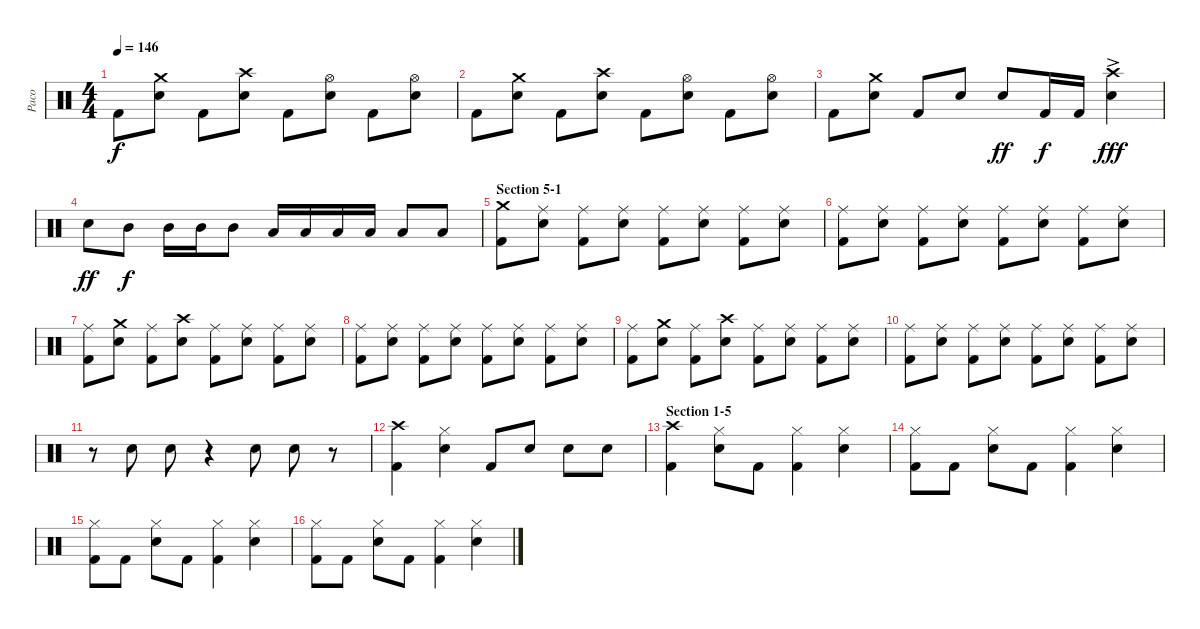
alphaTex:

\track ("Paco" "Paco") {instrument percussion}
\staff {score}
\articulation defaults
\ts (4 4)
\tempo 146
\clef neutral
\ks c "Kick (hit) 2".8{dy f}
("Crash medium (hit)" "Snare (hit) 2").8 "Kick (hit) 2".8 ("Crash high (hit)" "Snare (hit) 2").8 "Kick (hit) 2".8 ("Hi-Hat (open)" "Snare (hit) 2").8 "Kick (hit) 2".8 ("Hi-Hat (open)" "Snare (hit) 2").8 |
"Kick (hit) 2".8 ("Crash medium (hit)" "Snare (hit) 2").8 "Kick (hit) 2".8 ("Crash high (hit)" "Snare (hit) 2").8 "Kick (hit) 2".8 ("Hi-Hat (open)" "Snare (hit) 2").8 "Kick (hit) 2".8 ("Hi-Hat (open)" "Snare (hit) 2").8 |
"Kick (hit) 2".8 ("Crash medium (hit)" "Snare (hit) 2").8 "Kick (hit) 2".8 "Snare (hit) 2".8 "Snare (hit) 2".8{dy ff} "Kick (hit) 2".16{dy f} "Kick (hit) 2".16 ("Crash high (hit)" "Snare (hit) 2"{ac}).4{dy fff} |
"Snare (hit) 2".8{dy ff} "Mid Tom (hit)".8{dy f} "Mid Tom (hit)".16 "Mid Tom (hit)".16 "Mid Tom (hit)".8 "Low Tom (hit)".16 "Low Tom (hit)".16 "Low Tom (hit)".16 "Low Tom (hit)".16 "Low Tom (hit)".8 "Low Tom (hit)".8 |
\section ("" "Section 5-1")
("Crash medium (hit)" "Kick (hit) 2").8 ("Ride (middle)" "Snare (hit) 2").8 ("Ride (middle)" "Kick (hit) 2").8 ("Ride (middle)" "Snare (hit) 2").8 ("Ride (middle)" "Kick (hit) 2").8 ("Ride (middle)" "Snare (hit) 2").8 ("Ride (middle)" "Kick (hit) 2").8 ("Ride (middle)" "Snare (hit) 2").8 |
("Ride (middle)" "Kick (hit) 2").8 ("Ride (middle)" "Snare (hit) 2").8 ("Ride (middle)" "Kick (hit) 2").8 ("Ride (middle)" "Snare (hit) 2").8 ("Ride (middle)" "Kick (hit) 2").8 ("Ride (middle)" "Snare (hit) 2").8 ("Ride (middle)" "Kick (hit) 2").8 ("Ride (middle)" "Snare (hit) 2").8 |
("Ride (middle)" "Kick (hit) 2").8 ("Crash medium (hit)" "Snare (hit) 2").8 ("Ride (middle)" "Kick (hit) 2").8 ("Crash high (hit)" "Snare (hit) 2").8 ("Ride (middle)" "Kick (hit) 2").8 ("Ride (middle)" "Snare (hit) 2").8 ("Ride (middle)" "Kick (hit) 2").8 ("Ride (middle)" "Snare (hit) 2").8 |
("Ride (middle)" "Kick (hit) 2").8 ("Ride (middle)" "Snare (hit) 2").8 ("Ride (middle)" "Kick (hit) 2").8 ("Ride (middle)" "Snare (hit) 2").8 ("Ride (middle)" "Kick (hit) 2").8 ("Ride (middle)" "Snare (hit) 2").8 ("Ride (middle)" "Kick (hit) 2").8 ("Ride (middle)" "Snare (hit) 2").8 |
("Ride (middle)" "Kick (hit) 2").8 ("Crash medium (hit)" "Snare (hit) 2").8 ("Ride (middle)" "Kick (hit) 2").8 ("Crash high (hit)" "Snare (hit) 2").8 ("Ride (middle)" "Kick (hit) 2").8 ("Ride (middle)" "Snare (hit) 2").8 ("Ride (middle)" "Kick (hit) 2").8 ("Ride (middle)" "Snare (hit) 2").8 |
("Ride (middle)" "Kick (hit) 2").8 ("Ride (middle)" "Snare (hit) 2").8 ("Ride (middle)" "Kick (hit) 2").8 ("Ride (middle)" "Snare (hit) 2").8 ("Ride (middle)" "Kick (hit) 2").8 ("Ride (middle)" "Snare (hit) 2").8 ("Ride (middle)" "Kick (hit) 2").8 ("Ride (middle)" "Snare (hit) 2").8 |
r.8 "Snare (hit) 2".8 "Snare (hit) 2".8 r.4 "Snare (hit) 2".8 "Snare (hit) 2".8 r.8 |
("Crash high (hit)" "Kick (hit) 2").4 ("Hi-Hat (closed)" "Snare (hit) 2").4 "Kick (hit) 2".8 "Snare (hit) 2".8 "Snare (hit) 2".8 "Snare (hit) 2".8 |
\section ("" "Section 1-5")
("Crash high (hit)" "Kick (hit) 2").4 ("Hi-Hat (closed)" "Snare (hit) 2").8 "Kick (hit) 2".8 ("Hi-Hat (closed)" "Kick (hit) 2").4 ("Hi-Hat (closed)" "Snare (hit) 2").4 |
("Hi-Hat (closed)" "Kick (hit) 2").8 "Kick (hit) 2".8 ("Hi-Hat (closed)" "Snare (hit) 2").8 "Kick (hit) 2".8 ("Hi-Hat (closed)" "Kick (hit) 2").4 ("Hi-Hat (closed)" "Snare (hit) 2").4 |
("Hi-Hat (closed)" "Kick (hit) 2").8 "Kick (hit) 2".8 ("Hi-Hat (closed)" "Snare (hit) 2").8 "Kick (hit) 2".8 ("Hi-Hat (closed)" "Kick (hit) 2").4 ("Hi-Hat (closed)" "Snare (hit) 2").4 |
("Hi-Hat (closed)" "Kick (hit) 2").8 "Kick (hit) 2".8 ("Hi-Hat (closed)" "Snare (hit) 2").8 "Kick (hit) 2".8 ("Hi-Hat (closed)" "Kick (hit) 2").4 ("Hi-Hat (closed)" "Snare (hit) 2").4
